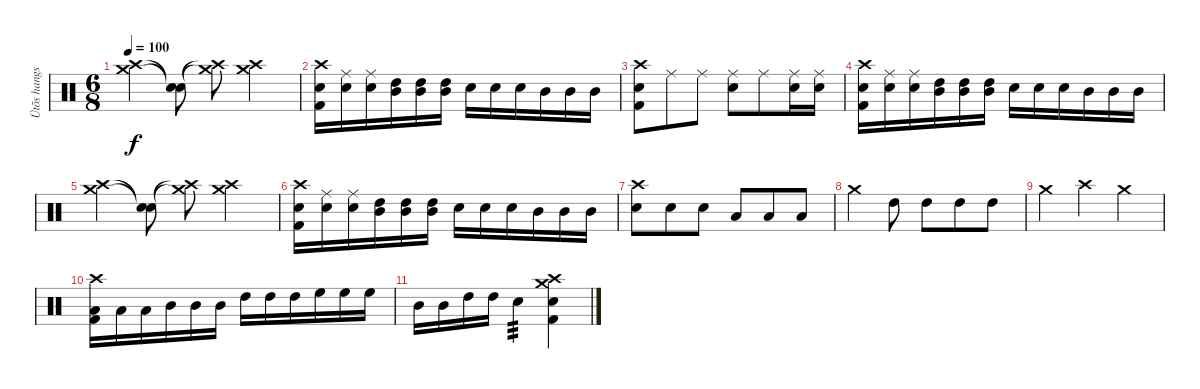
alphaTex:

\track ("Ütõs hangszer" "Ütõs hangs") {instrument percussion}
\staff {score}
\articulation defaults
\ts (6 8)
\tempo 100
\clef neutral
\ks c
("Crash high (hit)" "Crash medium (hit)").4{dy f} ("Snare (hit)"{t} "Snare (hit)"{t}).8 ("Crash high (hit)"{t} "Crash medium (hit)"{t}).8 ("Crash high (hit)" "Crash medium (hit)").4 |
("Crash high (hit)" "Snare (hit) 2" "Kick (hit) 2").16 ("Ride (middle)" "Snare (hit) 2").16 ("Ride (middle)" "Snare (hit) 2").16 ("High Tom (hit)" "Mid Tom (hit)").16 ("High Tom (hit)" "Mid Tom (hit)").16 ("High Tom (hit)" "Mid Tom (hit)").16 "Snare (hit) 2".16 "Snare (hit) 2".16 "Snare (hit) 2".16 "Mid Tom (hit)".16 "Mid Tom (hit)".16 "Mid Tom (hit)".16 |
("Crash high (hit)" "Snare (hit) 2" "Kick (hit) 2").8 "Ride (middle)".8 "Ride (middle)".8 ("Ride (middle)" "Snare (hit) 2").8 "Ride (middle)".8 ("Ride (middle)" "Snare (hit) 2").16 ("Ride (middle)" "Snare (hit) 2").16 |
("Crash high (hit)" "Snare (hit) 2" "Kick (hit) 2").16 ("Ride (middle)" "Snare (hit) 2").16 ("Ride (middle)" "Snare (hit) 2").16 ("High Tom (hit)" "Mid Tom (hit)").16 ("High Tom (hit)" "Mid Tom (hit)").16 ("High Tom (hit)" "Mid Tom (hit)").16 "Snare (hit) 2".16 "Snare (hit) 2".16 "Snare (hit) 2".16 "Mid Tom (hit)".16 "Mid Tom (hit)".16 "Mid Tom (hit)".16 |
("Crash high (hit)" "Crash medium (hit)").4 ("Snare (hit)"{t} "Snare (hit)"{t}).8 ("Crash high (hit)"{t} "Crash medium (hit)"{t}).8 ("Crash high (hit)" "Crash medium (hit)").4 |
("Crash high (hit)" "Snare (hit) 2" "Kick (hit) 2").16 ("Ride (middle)" "Snare (hit) 2").16 ("Ride (middle)" "Snare (hit) 2").16 ("High Tom (hit)" "Mid Tom (hit)").16 ("High Tom (hit)" "Mid Tom (hit)").16 ("High Tom (hit)" "Mid Tom (hit)").16 "Snare (hit) 2".16 "Snare (hit) 2".16 "Snare (hit) 2".16 "Mid Tom (hit)".16 "Mid Tom (hit)".16 "Mid Tom (hit)".16 |
("Crash high (hit)" "Snare (hit) 2").8 "Snare (hit) 2".8 "Snare (hit) 2".8 "Low Tom (hit)".8 "Low Tom (hit)".8 "Low Tom (hit)".8 |
"Crash medium (hit)".4 "High Tom (hit)".8 "High Tom (hit)".8 "High Tom (hit)".8 "High Tom (hit)".8 |
"Crash medium (hit)".4 "Crash high (hit)".4 "Crash medium (hit)".4 |
("Crash high (hit)" "Low Tom (hit)" "Kick (hit) 2").16 "Low Tom (hit)".16 "Low Tom (hit)".16 "Mid Tom (hit)".16 "Mid Tom (hit)".16 "Mid Tom (hit)".16 "High Tom (hit)".16 "High Tom (hit)".16 "High Tom (hit)".16 "High Floor Tom (hit)".16 "High Floor Tom (hit)".16 "High Floor Tom (hit)".16 |
"Mid Tom (hit)".16 "Mid Tom (hit)".16 "High Tom (hit)".16 "High Tom (hit)".16 "Snare (hit) 2".4{tp 3} ("Crash high (hit)" "Crash medium (hit)" "Snare (hit) 2" "Kick (hit) 2").4
